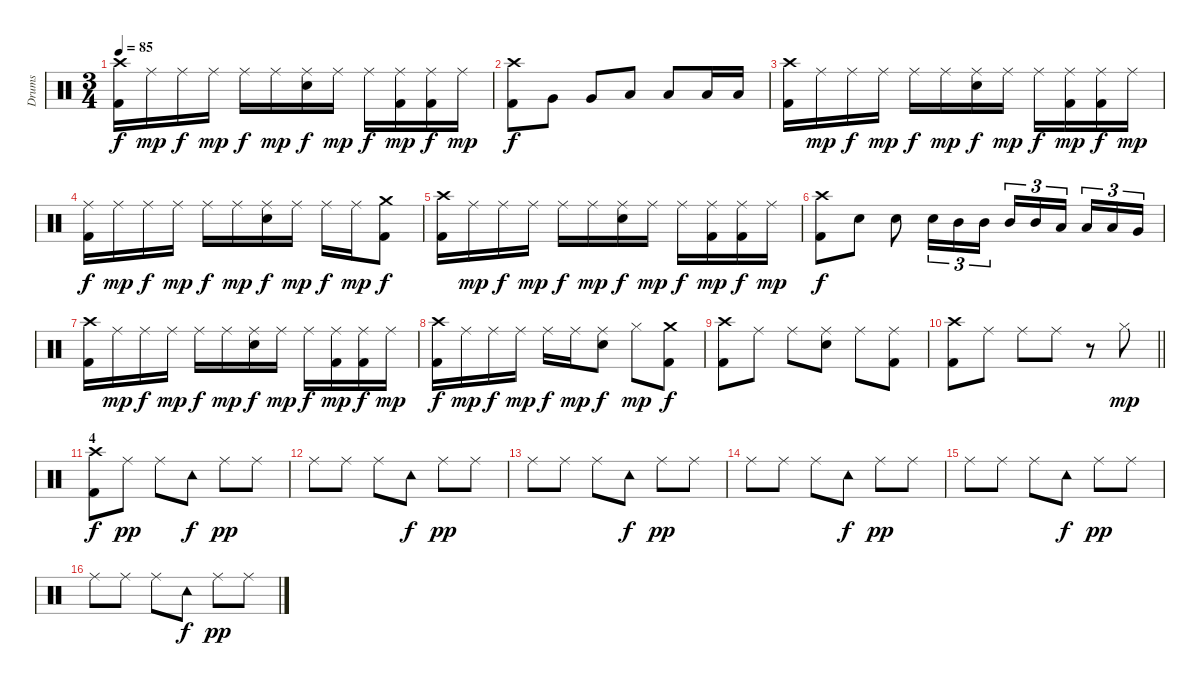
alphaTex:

\track ("Drums" "Drums") {instrument percussion}
\staff {score}
\articulation defaults
\ts (3 4)
\tempo 85
\clef neutral
\ks c
("Crash high (hit)" "Kick (hit) 2").16{dy f} "Ride (middle)".16{dy mp} "Ride (middle)".16{dy f} "Ride (middle)".16{dy mp} "Ride (middle)".16{dy f} "Ride (middle)".16{dy mp} ("Ride (middle)" "Electric Snare (hit)").16{dy f} "Ride (middle)".16{dy mp} "Ride (middle)".16{dy f} ("Ride (middle)" "Kick (hit) 2").16{dy mp} ("Ride (middle)" "Kick (hit) 2").16{dy f} "Ride (middle)".16{dy mp} |
("Crash high (hit)" "Kick (hit) 2").8{dy f} "Very Low Tom (hit)".8 "Very Low Tom (hit)".8 "Low Tom (hit)".8 "Low Tom (hit)".8 "Low Tom (hit)".16 "Low Tom (hit)".16 |
("Crash high (hit)" "Kick (hit) 2").16 "Ride (middle)".16{dy mp} "Ride (middle)".16{dy f} "Ride (middle)".16{dy mp} "Ride (middle)".16{dy f} "Ride (middle)".16{dy mp} ("Ride (middle)" "Electric Snare (hit)").16{dy f} "Ride (middle)".16{dy mp} "Ride (middle)".16{dy f} ("Ride (middle)" "Kick (hit) 2").16{dy mp} ("Ride (middle)" "Kick (hit) 2").16{dy f} "Ride (middle)".16{dy mp} |
("Ride (middle)" "Kick (hit) 2").16{dy f} "Ride (middle)".16{dy mp} "Ride (middle)".16{dy f} "Ride (middle)".16{dy mp} "Ride (middle)".16{dy f} "Ride (middle)".16{dy mp} ("Ride (middle)" "Electric Snare (hit)").16{dy f} "Ride (middle)".16{dy mp} "Ride (middle)".16{dy f} "Ride (middle)".16{dy mp} ("Crash medium (hit)" "Kick (hit) 2").8{dy f} |
("Crash high (hit)" "Kick (hit) 2").16 "Ride (middle)".16{dy mp} "Ride (middle)".16{dy f} "Ride (middle)".16{dy mp} "Ride (middle)".16{dy f} "Ride (middle)".16{dy mp} ("Ride (middle)" "Electric Snare (hit)").16{dy f} "Ride (middle)".16{dy mp} "Ride (middle)".16{dy f} ("Ride (middle)" "Kick (hit) 2").16{dy mp} ("Ride (middle)" "Kick (hit) 2").16{dy f} "Ride (middle)".16{dy mp} |
("Crash high (hit)" "Kick (hit) 2").8{dy f} "Electric Snare (hit)".8 "Electric Snare (hit)".8 "Electric Snare (hit)".16{tu (3 2)} "Mid Tom (hit)".16{tu (3 2)} "Mid Tom (hit)".16{tu (3 2)} "Mid Tom (hit)".16{tu (3 2)} "Mid Tom (hit)".16{tu (3 2)} "Low Tom (hit)".16{tu (3 2) beam splitsecondary} "Low Tom (hit)".16{tu (3 2)} "Low Tom (hit)".16{tu (3 2)} "Very Low Tom (hit)".16{tu (3 2)} |
("Crash high (hit)" "Kick (hit) 2").16 "Ride (middle)".16{dy mp} "Ride (middle)".16{dy f} "Ride (middle)".16{dy mp} "Ride (middle)".16{dy f} "Ride (middle)".16{dy mp} ("Ride (middle)" "Electric Snare (hit)").16{dy f} "Ride (middle)".16{dy mp} "Ride (middle)".16{dy f} ("Ride (middle)" "Kick (hit) 2").16{dy mp} ("Ride (middle)" "Kick (hit) 2").16{dy f} "Ride (middle)".16{dy mp} |
("Crash high (hit)" "Kick (hit) 2").16{dy f} "Ride (middle)".16{dy mp} "Ride (middle)".16{dy f} "Ride (middle)".16{dy mp} "Ride (middle)".16{dy f} "Ride (middle)".16{dy mp} ("Ride (middle)" "Electric Snare (hit)").8{dy f} "Hi-Hat (closed)".8{dy mp} ("Crash medium (hit)" "Kick (hit) 2").8{dy f} |
("Crash high (hit)" "Kick (hit) 2").8 "Ride (middle)".8 "Ride (middle)".8 ("Ride (middle)" "Electric Snare (hit)").8 "Ride (middle)".8 ("Ride (middle)" "Kick (hit) 2").8 |
\barLineRight lightlight
("Crash high (hit)" "Kick (hit) 2").8 "Ride (middle)".8 "Ride (middle)".8 "Ride (middle)".8 r.8 "Hi-Hat (closed)".8{dy mp} |
\section ("" "4")
("Crash high (hit)" "Kick (hit) 2").8{dy f} "Ride (middle)".8{dy pp} "Ride (middle)".8 "Tambourine (hit)".8{dy f} "Ride (middle)".8{dy pp} "Ride (middle)".8 |
"Ride (middle)".8 "Ride (middle)".8 "Ride (middle)".8 "Tambourine (hit)".8{dy f} "Ride (middle)".8{dy pp} "Ride (middle)".8 |
"Ride (middle)".8 "Ride (middle)".8 "Ride (middle)".8 "Tambourine (hit)".8{dy f} "Ride (middle)".8{dy pp} "Ride (middle)".8 |
"Ride (middle)".8 "Ride (middle)".8 "Ride (middle)".8 "Tambourine (hit)".8{dy f} "Ride (middle)".8{dy pp} "Ride (middle)".8 |
"Ride (middle)".8 "Ride (middle)".8 "Ride (middle)".8 "Tambourine (hit)".8{dy f} "Ride (middle)".8{dy pp} "Ride (middle)".8 |
"Ride (middle)".8 "Ride (middle)".8 "Ride (middle)".8 "Tambourine (hit)".8{dy f} "Ride (middle)".8{dy pp} "Ride (middle)".8
